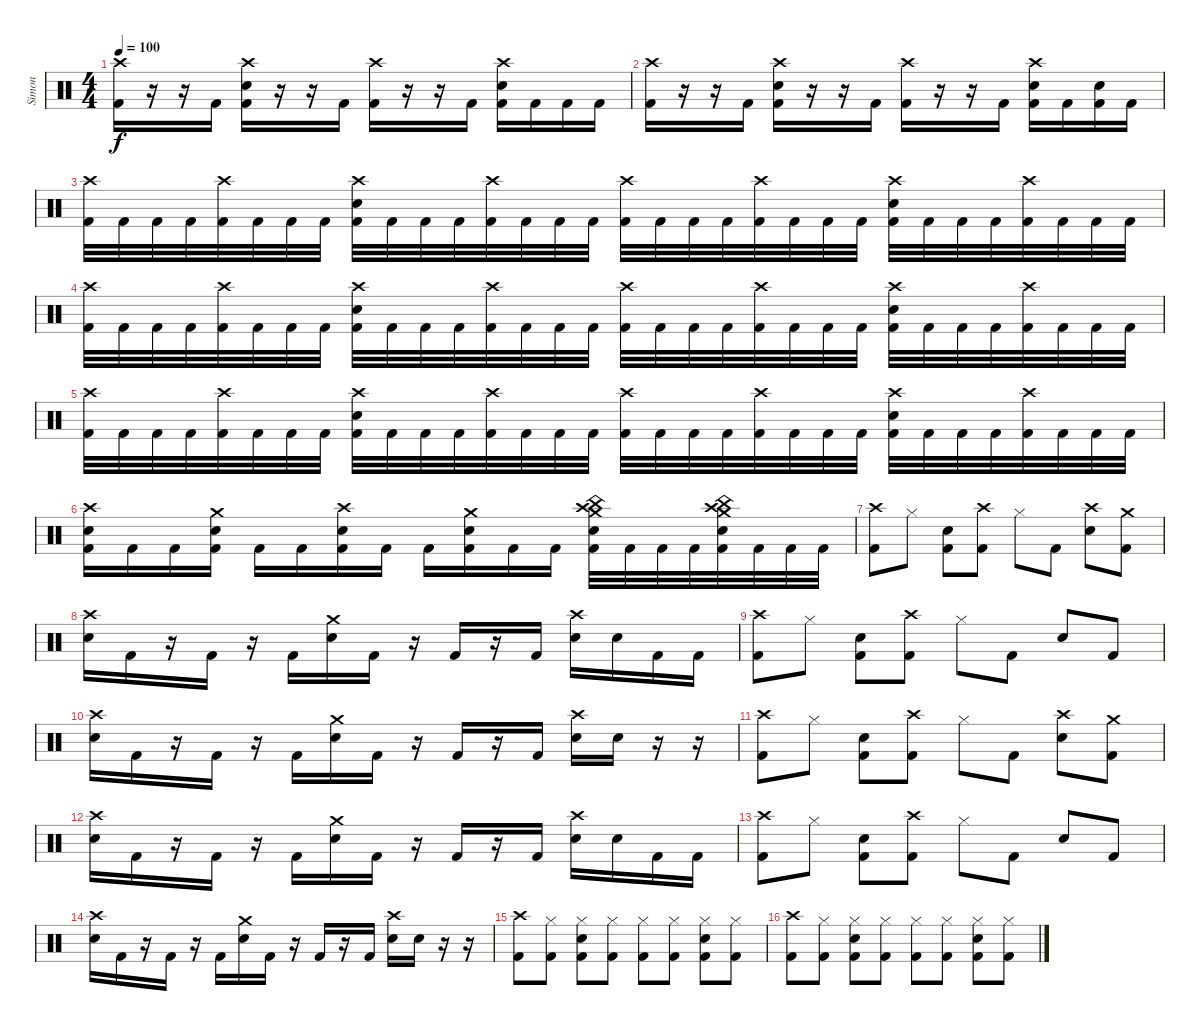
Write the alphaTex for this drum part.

\track ("Simon" "Simon") {instrument percussion}
\staff {score}
\articulation defaults
\ts (4 4)
\tempo 100
\clef neutral
\ks c
("Crash high (hit)" "Kick (hit) 2").16{dy f} r.16 r.16 "Kick (hit) 2".16 ("Crash high (hit)" "Snare (hit) 2" "Kick (hit) 2").16 r.16 r.16 "Kick (hit) 2".16 ("Crash high (hit)" "Kick (hit) 2").16 r.16 r.16 "Kick (hit) 2".16 ("Crash high (hit)" "Snare (hit) 2" "Kick (hit) 2").16 "Kick (hit) 2".16 "Kick (hit) 2".16 "Kick (hit) 2".16 |
("Crash high (hit)" "Kick (hit) 2").16 r.16 r.16 "Kick (hit) 2".16 ("Crash high (hit)" "Snare (hit) 2" "Kick (hit) 2").16 r.16 r.16 "Kick (hit) 2".16 ("Crash high (hit)" "Kick (hit) 2").16 r.16 r.16 "Kick (hit) 2".16 ("Crash high (hit)" "Snare (hit) 2" "Kick (hit) 2").16 "Kick (hit) 2".16 ("Snare (hit) 2" "Kick (hit) 2").16 "Kick (hit) 2".16 |
("Crash high (hit)" "Kick (hit) 2").32 "Kick (hit) 2".32 "Kick (hit) 2".32 "Kick (hit) 2".32 ("Crash high (hit)" "Kick (hit) 2").32 "Kick (hit) 2".32 "Kick (hit) 2".32 "Kick (hit) 2".32 ("Crash high (hit)" "Snare (hit) 2" "Kick (hit) 2").32 "Kick (hit) 2".32 "Kick (hit) 2".32 "Kick (hit) 2".32 ("Crash high (hit)" "Kick (hit) 2").32 "Kick (hit) 2".32 "Kick (hit) 2".32 "Kick (hit) 2".32 ("Crash high (hit)" "Kick (hit) 2").32 "Kick (hit) 2".32 "Kick (hit) 2".32 "Kick (hit) 2".32 ("Crash high (hit)" "Kick (hit) 2").32 "Kick (hit) 2".32 "Kick (hit) 2".32 "Kick (hit) 2".32 ("Crash high (hit)" "Snare (hit) 2" "Kick (hit) 2").32 "Kick (hit) 2".32 "Kick (hit) 2".32 "Kick (hit) 2".32 ("Crash high (hit)" "Kick (hit) 2").32 "Kick (hit) 2".32 "Kick (hit) 2".32 "Kick (hit) 2".32 |
("Crash high (hit)" "Kick (hit) 2").32 "Kick (hit) 2".32 "Kick (hit) 2".32 "Kick (hit) 2".32 ("Crash high (hit)" "Kick (hit) 2").32 "Kick (hit) 2".32 "Kick (hit) 2".32 "Kick (hit) 2".32 ("Crash high (hit)" "Snare (hit) 2" "Kick (hit) 2").32 "Kick (hit) 2".32 "Kick (hit) 2".32 "Kick (hit) 2".32 ("Crash high (hit)" "Kick (hit) 2").32 "Kick (hit) 2".32 "Kick (hit) 2".32 "Kick (hit) 2".32 ("Crash high (hit)" "Kick (hit) 2").32 "Kick (hit) 2".32 "Kick (hit) 2".32 "Kick (hit) 2".32 ("Crash high (hit)" "Kick (hit) 2").32 "Kick (hit) 2".32 "Kick (hit) 2".32 "Kick (hit) 2".32 ("Crash high (hit)" "Snare (hit) 2" "Kick (hit) 2").32 "Kick (hit) 2".32 "Kick (hit) 2".32 "Kick (hit) 2".32 ("Crash high (hit)" "Kick (hit) 2").32 "Kick (hit) 2".32 "Kick (hit) 2".32 "Kick (hit) 2".32 |
("Crash high (hit)" "Kick (hit) 2").32 "Kick (hit) 2".32 "Kick (hit) 2".32 "Kick (hit) 2".32 ("Crash high (hit)" "Kick (hit) 2").32 "Kick (hit) 2".32 "Kick (hit) 2".32 "Kick (hit) 2".32 ("Crash high (hit)" "Snare (hit) 2" "Kick (hit) 2").32 "Kick (hit) 2".32 "Kick (hit) 2".32 "Kick (hit) 2".32 ("Crash high (hit)" "Kick (hit) 2").32 "Kick (hit) 2".32 "Kick (hit) 2".32 "Kick (hit) 2".32 ("Crash high (hit)" "Kick (hit) 2").32 "Kick (hit) 2".32 "Kick (hit) 2".32 "Kick (hit) 2".32 ("Crash high (hit)" "Kick (hit) 2").32 "Kick (hit) 2".32 "Kick (hit) 2".32 "Kick (hit) 2".32 ("Crash high (hit)" "Snare (hit) 2" "Kick (hit) 2").32 "Kick (hit) 2".32 "Kick (hit) 2".32 "Kick (hit) 2".32 ("Crash high (hit)" "Kick (hit) 2").32 "Kick (hit) 2".32 "Kick (hit) 2".32 "Kick (hit) 2".32 |
("Crash high (hit)" "Snare (hit) 2" "Kick (hit) 2").16 "Kick (hit) 2".16 "Kick (hit) 2".16 ("Crash medium (hit)" "Snare (hit) 2" "Kick (hit) 2").16 "Kick (hit) 2".16 "Kick (hit) 2".16 ("Crash high (hit)" "Snare (hit) 2" "Kick (hit) 2").16 "Kick (hit) 2".16 "Kick (hit) 2".16 ("Crash medium (hit)" "Snare (hit) 2" "Kick (hit) 2").16 "Kick (hit) 2".16 "Kick (hit) 2".16 ("Crash medium (hit)" "Crash high (hit)" "China (hit)" "Snare (hit) 2" "Kick (hit) 2").32 "Kick (hit) 2".32 "Kick (hit) 2".32 "Kick (hit) 2".32 ("Crash medium (hit)" "Crash high (hit)" "China (hit)" "Snare (hit) 2" "Kick (hit) 2").32 "Kick (hit) 2".32 "Kick (hit) 2".32 "Kick (hit) 2".32 |
("Crash high (hit)" "Kick (hit) 2").8 "Hi-Hat (closed)".8 ("Snare (hit) 2" "Kick (hit) 2").8 ("Crash high (hit)" "Kick (hit) 2").8 "Hi-Hat (closed)".8 "Kick (hit) 2".8 ("Crash high (hit)" "Snare (hit) 2").8 ("Crash medium (hit)" "Kick (hit) 2").8 |
("Crash high (hit)" "Snare (hit) 2").16 "Kick (hit) 2".16 r.16 "Kick (hit) 2".16 r.16 "Kick (hit) 2".16 ("Crash medium (hit)" "Snare (hit) 2").16 "Kick (hit) 2".16 r.16 "Kick (hit) 2".16 r.16 "Kick (hit) 2".16 ("Crash high (hit)" "Snare (hit) 2").16 "Snare (hit) 2".16 "Kick (hit) 2".16 "Kick (hit) 2".16 |
("Crash high (hit)" "Kick (hit) 2").8 "Hi-Hat (closed)".8 ("Snare (hit) 2" "Kick (hit) 2").8 ("Crash high (hit)" "Kick (hit) 2").8 "Hi-Hat (closed)".8 "Kick (hit) 2".8 "Snare (hit) 2".8 "Kick (hit) 2".8 |
("Crash high (hit)" "Snare (hit) 2").16 "Kick (hit) 2".16 r.16 "Kick (hit) 2".16 r.16 "Kick (hit) 2".16 ("Crash medium (hit)" "Snare (hit) 2").16 "Kick (hit) 2".16 r.16 "Kick (hit) 2".16 r.16 "Kick (hit) 2".16 ("Crash high (hit)" "Snare (hit) 2").16 "Snare (hit) 2".16 r.16 r.16 |
("Crash high (hit)" "Kick (hit) 2").8 "Hi-Hat (closed)".8 ("Snare (hit) 2" "Kick (hit) 2").8 ("Crash high (hit)" "Kick (hit) 2").8 "Hi-Hat (closed)".8 "Kick (hit) 2".8 ("Crash high (hit)" "Snare (hit) 2").8 ("Crash medium (hit)" "Kick (hit) 2").8 |
("Crash high (hit)" "Snare (hit) 2").16 "Kick (hit) 2".16 r.16 "Kick (hit) 2".16 r.16 "Kick (hit) 2".16 ("Crash medium (hit)" "Snare (hit) 2").16 "Kick (hit) 2".16 r.16 "Kick (hit) 2".16 r.16 "Kick (hit) 2".16 ("Crash high (hit)" "Snare (hit) 2").16 "Snare (hit) 2".16 "Kick (hit) 2".16 "Kick (hit) 2".16 |
("Crash high (hit)" "Kick (hit) 2").8 "Hi-Hat (closed)".8 ("Snare (hit) 2" "Kick (hit) 2").8 ("Crash high (hit)" "Kick (hit) 2").8 "Hi-Hat (closed)".8 "Kick (hit) 2".8 "Snare (hit) 2".8 "Kick (hit) 2".8 |
("Crash high (hit)" "Snare (hit) 2").16 "Kick (hit) 2".16 r.16 "Kick (hit) 2".16 r.16 "Kick (hit) 2".16 ("Crash medium (hit)" "Snare (hit) 2").16 "Kick (hit) 2".16 r.16 "Kick (hit) 2".16 r.16 "Kick (hit) 2".16 ("Crash high (hit)" "Snare (hit) 2").16 "Snare (hit) 2".16 r.16 r.16 |
("Crash high (hit)" "Kick (hit) 2").8 ("Hi-Hat (closed)" "Kick (hit) 2").8 ("Hi-Hat (closed)" "Snare (hit) 2" "Kick (hit) 2").8 ("Hi-Hat (closed)" "Kick (hit) 2").8 ("Hi-Hat (closed)" "Kick (hit) 2").8 ("Hi-Hat (closed)" "Kick (hit) 2").8 ("Hi-Hat (closed)" "Snare (hit) 2" "Kick (hit) 2").8 ("Hi-Hat (closed)" "Kick (hit) 2").8 |
("Crash high (hit)" "Kick (hit) 2").8 ("Hi-Hat (closed)" "Kick (hit) 2").8 ("Hi-Hat (closed)" "Snare (hit) 2" "Kick (hit) 2").8 ("Hi-Hat (closed)" "Kick (hit) 2").8 ("Hi-Hat (closed)" "Kick (hit) 2").8 ("Hi-Hat (closed)" "Kick (hit) 2").8 ("Hi-Hat (closed)" "Snare (hit) 2" "Kick (hit) 2").8 ("Hi-Hat (closed)" "Kick (hit) 2").8
